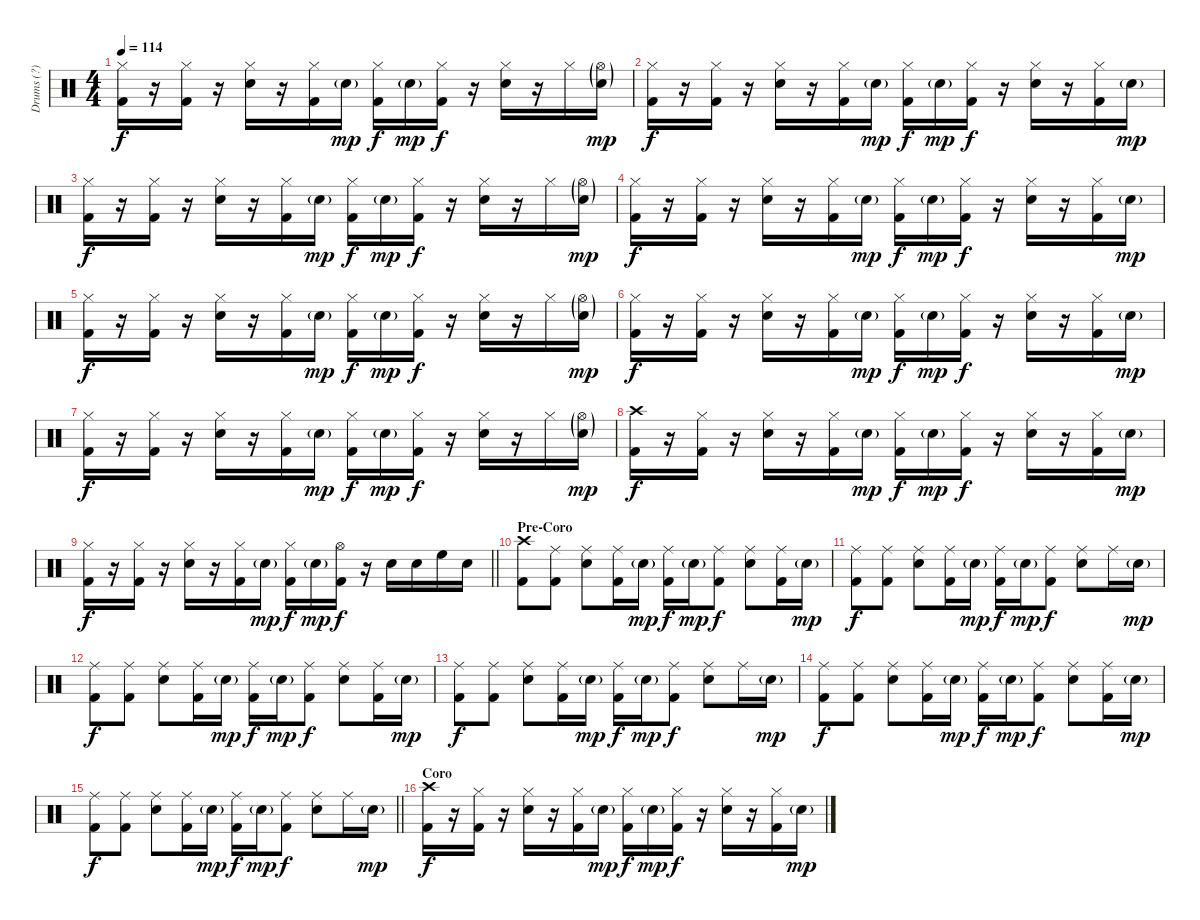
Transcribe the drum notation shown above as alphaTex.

\track ("Drums (?)" "Drums (?)") {instrument percussion}
\staff {score}
\articulation defaults
\ts (4 4)
\tempo 114
\clef neutral
\ks c
("Hi-Hat (closed)" "Kick (hit) 2").16{dy f} r.16 ("Hi-Hat (closed)" "Kick (hit) 2").16 r.16 ("Hi-Hat (closed)" "Snare (hit) 2").16 r.16 ("Hi-Hat (closed)" "Kick (hit) 2").16 "Snare (hit) 2"{g}.16{dy mp} ("Hi-Hat (closed)" "Kick (hit) 2").16{dy f} "Snare (hit) 2"{g}.16{dy mp} ("Hi-Hat (closed)" "Kick (hit) 2").16{dy f} r.16 ("Hi-Hat (closed)" "Snare (hit) 2").16 r.16 "Hi-Hat (closed)".16 ("Hi-Hat (open)"{g} "Snare (hit) 2"{g}).16{dy mp} |
("Hi-Hat (closed)" "Kick (hit) 2").16{dy f} r.16 ("Hi-Hat (closed)" "Kick (hit) 2").16 r.16 ("Hi-Hat (closed)" "Snare (hit) 2").16 r.16 ("Hi-Hat (closed)" "Kick (hit) 2").16 "Snare (hit) 2"{g}.16{dy mp} ("Hi-Hat (closed)" "Kick (hit) 2").16{dy f} "Snare (hit) 2"{g}.16{dy mp} ("Hi-Hat (closed)" "Kick (hit) 2").16{dy f} r.16 ("Hi-Hat (closed)" "Snare (hit) 2").16 r.16 ("Hi-Hat (closed)" "Kick (hit) 2").16 "Snare (hit) 2"{g}.16{dy mp} |
("Hi-Hat (closed)" "Kick (hit) 2").16{dy f} r.16 ("Hi-Hat (closed)" "Kick (hit) 2").16 r.16 ("Hi-Hat (closed)" "Snare (hit) 2").16 r.16 ("Hi-Hat (closed)" "Kick (hit) 2").16 "Snare (hit) 2"{g}.16{dy mp} ("Hi-Hat (closed)" "Kick (hit) 2").16{dy f} "Snare (hit) 2"{g}.16{dy mp} ("Hi-Hat (closed)" "Kick (hit) 2").16{dy f} r.16 ("Hi-Hat (closed)" "Snare (hit) 2").16 r.16 "Hi-Hat (closed)".16 ("Hi-Hat (open)"{g} "Snare (hit) 2"{g}).16{dy mp} |
("Hi-Hat (closed)" "Kick (hit) 2").16{dy f} r.16 ("Hi-Hat (closed)" "Kick (hit) 2").16 r.16 ("Hi-Hat (closed)" "Snare (hit) 2").16 r.16 ("Hi-Hat (closed)" "Kick (hit) 2").16 "Snare (hit) 2"{g}.16{dy mp} ("Hi-Hat (closed)" "Kick (hit) 2").16{dy f} "Snare (hit) 2"{g}.16{dy mp} ("Hi-Hat (closed)" "Kick (hit) 2").16{dy f} r.16 ("Hi-Hat (closed)" "Snare (hit) 2").16 r.16 ("Hi-Hat (closed)" "Kick (hit) 2").16 "Snare (hit) 2"{g}.16{dy mp} |
("Hi-Hat (closed)" "Kick (hit) 2").16{dy f} r.16 ("Hi-Hat (closed)" "Kick (hit) 2").16 r.16 ("Hi-Hat (closed)" "Snare (hit) 2").16 r.16 ("Hi-Hat (closed)" "Kick (hit) 2").16 "Snare (hit) 2"{g}.16{dy mp} ("Hi-Hat (closed)" "Kick (hit) 2").16{dy f} "Snare (hit) 2"{g}.16{dy mp} ("Hi-Hat (closed)" "Kick (hit) 2").16{dy f} r.16 ("Hi-Hat (closed)" "Snare (hit) 2").16 r.16 "Hi-Hat (closed)".16 ("Hi-Hat (open)"{g} "Snare (hit) 2"{g}).16{dy mp} |
("Hi-Hat (closed)" "Kick (hit) 2").16{dy f} r.16 ("Hi-Hat (closed)" "Kick (hit) 2").16 r.16 ("Hi-Hat (closed)" "Snare (hit) 2").16 r.16 ("Hi-Hat (closed)" "Kick (hit) 2").16 "Snare (hit) 2"{g}.16{dy mp} ("Hi-Hat (closed)" "Kick (hit) 2").16{dy f} "Snare (hit) 2"{g}.16{dy mp} ("Hi-Hat (closed)" "Kick (hit) 2").16{dy f} r.16 ("Hi-Hat (closed)" "Snare (hit) 2").16 r.16 ("Hi-Hat (closed)" "Kick (hit) 2").16 "Snare (hit) 2"{g}.16{dy mp} |
("Hi-Hat (closed)" "Kick (hit) 2").16{dy f} r.16 ("Hi-Hat (closed)" "Kick (hit) 2").16 r.16 ("Hi-Hat (closed)" "Snare (hit) 2").16 r.16 ("Hi-Hat (closed)" "Kick (hit) 2").16 "Snare (hit) 2"{g}.16{dy mp} ("Hi-Hat (closed)" "Kick (hit) 2").16{dy f} "Snare (hit) 2"{g}.16{dy mp} ("Hi-Hat (closed)" "Kick (hit) 2").16{dy f} r.16 ("Hi-Hat (closed)" "Snare (hit) 2").16 r.16 "Hi-Hat (closed)".16 ("Hi-Hat (open)"{g} "Snare (hit) 2"{g}).16{dy mp} |
("Crash high (hit)" "Kick (hit) 2").16{dy f} r.16 ("Hi-Hat (closed)" "Kick (hit) 2").16 r.16 ("Hi-Hat (closed)" "Snare (hit) 2").16 r.16 ("Hi-Hat (closed)" "Kick (hit) 2").16 "Snare (hit) 2"{g}.16{dy mp} ("Hi-Hat (closed)" "Kick (hit) 2").16{dy f} "Snare (hit) 2"{g}.16{dy mp} ("Hi-Hat (closed)" "Kick (hit) 2").16{dy f} r.16 ("Hi-Hat (closed)" "Snare (hit) 2").16 r.16 ("Hi-Hat (closed)" "Kick (hit) 2").16 "Snare (hit) 2"{g}.16{dy mp} |
\barLineRight lightlight
("Hi-Hat (closed)" "Kick (hit) 2").16{dy f} r.16 ("Hi-Hat (closed)" "Kick (hit) 2").16 r.16 ("Hi-Hat (closed)" "Snare (hit) 2").16 r.16 ("Hi-Hat (closed)" "Kick (hit) 2").16 "Snare (hit) 2"{g}.16{dy mp} ("Hi-Hat (closed)" "Kick (hit) 2").16{dy f} "Snare (hit) 2"{g}.16{dy mp} ("Hi-Hat (open)" "Kick (hit) 2").16{dy f} r.16 "Snare (hit) 2".16 "Snare (hit) 2".16 "High Floor Tom (hit)".16 "Snare (hit) 2".16 |
\section ("" "Pre-Coro")
("Crash high (hit)" "Kick (hit) 2").8 ("Ride (middle)" "Kick (hit) 2").8 ("Ride (middle)" "Snare (hit) 2").8 ("Ride (middle)" "Kick (hit) 2").16 "Snare (hit) 2"{g}.16{dy mp} ("Ride (middle)" "Kick (hit) 2").16{dy f} "Snare (hit) 2"{g}.16{dy mp} ("Ride (middle)" "Kick (hit) 2").8{dy f} ("Ride (middle)" "Snare (hit) 2").8 ("Ride (middle)" "Kick (hit) 2").16 "Snare (hit) 2"{g}.16{dy mp} |
("Ride (middle)" "Kick (hit) 2").8{dy f} ("Ride (middle)" "Kick (hit) 2").8 ("Ride (middle)" "Snare (hit) 2").8 ("Ride (middle)" "Kick (hit) 2").16 "Snare (hit) 2"{g}.16{dy mp} ("Ride (middle)" "Kick (hit) 2").16{dy f} "Snare (hit) 2"{g}.16{dy mp} ("Ride (middle)" "Kick (hit) 2").8{dy f} ("Ride (middle)" "Snare (hit) 2").8 "Ride (middle)".16 "Snare (hit) 2"{g}.16{dy mp} |
("Ride (middle)" "Kick (hit) 2").8{dy f} ("Ride (middle)" "Kick (hit) 2").8 ("Ride (middle)" "Snare (hit) 2").8 ("Ride (middle)" "Kick (hit) 2").16 "Snare (hit) 2"{g}.16{dy mp} ("Ride (middle)" "Kick (hit) 2").16{dy f} "Snare (hit) 2"{g}.16{dy mp} ("Ride (middle)" "Kick (hit) 2").8{dy f} ("Ride (middle)" "Snare (hit) 2").8 ("Ride (middle)" "Kick (hit) 2").16 "Snare (hit) 2"{g}.16{dy mp} |
("Ride (middle)" "Kick (hit) 2").8{dy f} ("Ride (middle)" "Kick (hit) 2").8 ("Ride (middle)" "Snare (hit) 2").8 ("Ride (middle)" "Kick (hit) 2").16 "Snare (hit) 2"{g}.16{dy mp} ("Ride (middle)" "Kick (hit) 2").16{dy f} "Snare (hit) 2"{g}.16{dy mp} ("Ride (middle)" "Kick (hit) 2").8{dy f} ("Ride (middle)" "Snare (hit) 2").8 "Ride (middle)".16 "Snare (hit) 2"{g}.16{dy mp} |
("Ride (middle)" "Kick (hit) 2").8{dy f} ("Ride (middle)" "Kick (hit) 2").8 ("Ride (middle)" "Snare (hit) 2").8 ("Ride (middle)" "Kick (hit) 2").16 "Snare (hit) 2"{g}.16{dy mp} ("Ride (middle)" "Kick (hit) 2").16{dy f} "Snare (hit) 2"{g}.16{dy mp} ("Ride (middle)" "Kick (hit) 2").8{dy f} ("Ride (middle)" "Snare (hit) 2").8 ("Ride (middle)" "Kick (hit) 2").16 "Snare (hit) 2"{g}.16{dy mp} |
\barLineRight lightlight
("Ride (middle)" "Kick (hit) 2").8{dy f} ("Ride (middle)" "Kick (hit) 2").8 ("Ride (middle)" "Snare (hit) 2").8 ("Ride (middle)" "Kick (hit) 2").16 "Snare (hit) 2"{g}.16{dy mp} ("Ride (middle)" "Kick (hit) 2").16{dy f} "Snare (hit) 2"{g}.16{dy mp} ("Ride (middle)" "Kick (hit) 2").8{dy f} ("Ride (middle)" "Snare (hit) 2").8 "Ride (middle)".16 "Snare (hit) 2"{g}.16{dy mp} |
\section ("" "Coro")
("Crash high (hit)" "Kick (hit) 2").16{dy f} r.16 ("Hi-Hat (closed)" "Kick (hit) 2").16 r.16 ("Hi-Hat (closed)" "Snare (hit) 2").16 r.16 ("Hi-Hat (closed)" "Kick (hit) 2").16 "Snare (hit) 2"{g}.16{dy mp} ("Hi-Hat (closed)" "Kick (hit) 2").16{dy f} "Snare (hit) 2"{g}.16{dy mp} ("Hi-Hat (closed)" "Kick (hit) 2").16{dy f} r.16 ("Hi-Hat (closed)" "Snare (hit) 2").16 r.16 ("Hi-Hat (closed)" "Kick (hit) 2").16 "Snare (hit) 2"{g}.16{dy mp}
